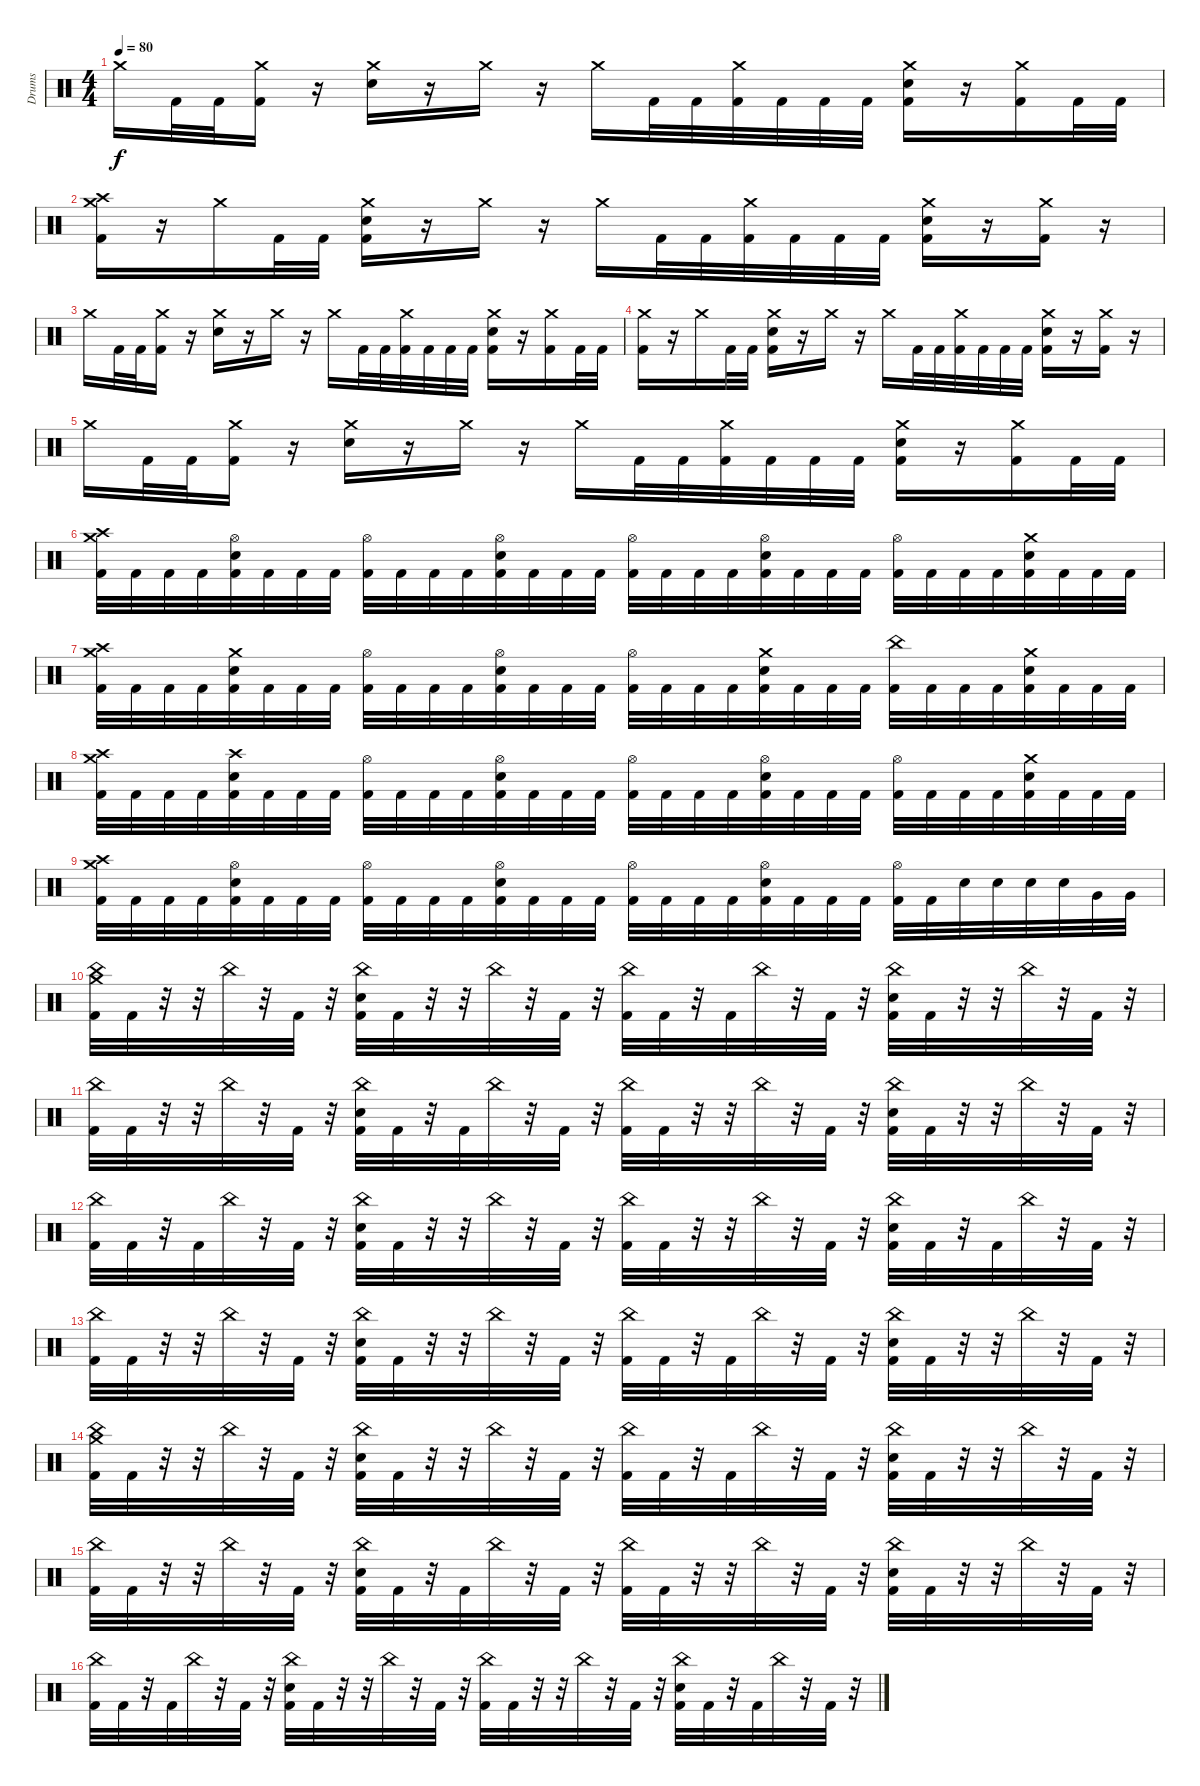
\track ("Drums" "Drums") {instrument percussion}
\staff {score}
\articulation defaults
\ts (4 4)
\tempo 80
\clef neutral
\ks c "Crash medium (hit)".16{dy f} "Kick (hit) 2".32 "Kick (hit) 2".32
("Crash medium (hit)" "Kick (hit) 2").16 r.16 ("Crash medium (hit)" "Snare (hit) 2").16 r.16 "Crash medium (hit)".16 r.16 "Crash medium (hit)".16 "Kick (hit) 2".32 "Kick (hit) 2".32 ("Crash medium (hit)" "Kick (hit) 2").32 "Kick (hit) 2".32 "Kick (hit) 2".32 "Kick (hit) 2".32 ("Crash medium (hit)" "Snare (hit) 2" "Kick (hit) 2").16 r.16 ("Crash medium (hit)" "Kick (hit) 2").16 "Kick (hit) 2".32 "Kick (hit) 2".32 |
("Crash medium (hit)" "Crash high (hit)" "Kick (hit) 2").16 r.16 "Crash medium (hit)".16 "Kick (hit) 2".32 "Kick (hit) 2".32 ("Crash medium (hit)" "Snare (hit) 2" "Kick (hit) 2").16 r.16 "Crash medium (hit)".16 r.16 "Crash medium (hit)".16 "Kick (hit) 2".32 "Kick (hit) 2".32 ("Crash medium (hit)" "Kick (hit) 2").32 "Kick (hit) 2".32 "Kick (hit) 2".32 "Kick (hit) 2".32 ("Crash medium (hit)" "Snare (hit) 2" "Kick (hit) 2").16 r.16 ("Crash medium (hit)" "Kick (hit) 2").16 r.16 |
"Crash medium (hit)".16 "Kick (hit) 2".32 "Kick (hit) 2".32 ("Crash medium (hit)" "Kick (hit) 2").16 r.16 ("Crash medium (hit)" "Snare (hit) 2").16 r.16 "Crash medium (hit)".16 r.16 "Crash medium (hit)".16 "Kick (hit) 2".32 "Kick (hit) 2".32 ("Crash medium (hit)" "Kick (hit) 2").32 "Kick (hit) 2".32 "Kick (hit) 2".32 "Kick (hit) 2".32 ("Crash medium (hit)" "Snare (hit) 2" "Kick (hit) 2").16 r.16 ("Crash medium (hit)" "Kick (hit) 2").16 "Kick (hit) 2".32 "Kick (hit) 2".32 |
("Crash medium (hit)" "Kick (hit) 2").16 r.16 "Crash medium (hit)".16 "Kick (hit) 2".32 "Kick (hit) 2".32 ("Crash medium (hit)" "Snare (hit) 2" "Kick (hit) 2").16 r.16 "Crash medium (hit)".16 r.16 "Crash medium (hit)".16 "Kick (hit) 2".32 "Kick (hit) 2".32 ("Crash medium (hit)" "Kick (hit) 2").32 "Kick (hit) 2".32 "Kick (hit) 2".32 "Kick (hit) 2".32 ("Crash medium (hit)" "Snare (hit) 2" "Kick (hit) 2").16 r.16 ("Crash medium (hit)" "Kick (hit) 2").16 r.16 |
"Crash medium (hit)".16 "Kick (hit) 2".32 "Kick (hit) 2".32 ("Crash medium (hit)" "Kick (hit) 2").16 r.16 ("Crash medium (hit)" "Snare (hit) 2").16 r.16 "Crash medium (hit)".16 r.16 "Crash medium (hit)".16 "Kick (hit) 2".32 "Kick (hit) 2".32 ("Crash medium (hit)" "Kick (hit) 2").32 "Kick (hit) 2".32 "Kick (hit) 2".32 "Kick (hit) 2".32 ("Crash medium (hit)" "Snare (hit) 2" "Kick (hit) 2").16 r.16 ("Crash medium (hit)" "Kick (hit) 2").16 "Kick (hit) 2".32 "Kick (hit) 2".32 |
("Crash medium (hit)" "Crash high (hit)" "Kick (hit) 2").32 "Kick (hit) 2".32 "Kick (hit) 2".32 "Kick (hit) 2".32 ("Hi-Hat (open)" "Snare (hit) 2" "Kick (hit) 2").32 "Kick (hit) 2".32 "Kick (hit) 2".32 "Kick (hit) 2".32 ("Hi-Hat (open)" "Kick (hit) 2").32 "Kick (hit) 2".32 "Kick (hit) 2".32 "Kick (hit) 2".32 ("Hi-Hat (open)" "Snare (hit) 2" "Kick (hit) 2").32 "Kick (hit) 2".32 "Kick (hit) 2".32 "Kick (hit) 2".32 ("Hi-Hat (open)" "Kick (hit) 2").32 "Kick (hit) 2".32 "Kick (hit) 2".32 "Kick (hit) 2".32 ("Hi-Hat (open)" "Snare (hit) 2" "Kick (hit) 2").32 "Kick (hit) 2".32 "Kick (hit) 2".32 "Kick (hit) 2".32 ("Hi-Hat (open)" "Kick (hit) 2").32 "Kick (hit) 2".32 "Kick (hit) 2".32 "Kick (hit) 2".32 ("Crash medium (hit)" "Snare (hit) 2" "Kick (hit) 2").32 "Kick (hit) 2".32 "Kick (hit) 2".32 "Kick (hit) 2".32 |
("Crash medium (hit)" "Crash high (hit)" "Kick (hit) 2").32 "Kick (hit) 2".32 "Kick (hit) 2".32 "Kick (hit) 2".32 ("Crash medium (hit)" "Snare (hit) 2" "Kick (hit) 2").32 "Kick (hit) 2".32 "Kick (hit) 2".32 "Kick (hit) 2".32 ("Hi-Hat (open)" "Kick (hit) 2").32 "Kick (hit) 2".32 "Kick (hit) 2".32 "Kick (hit) 2".32 ("Hi-Hat (open)" "Snare (hit) 2" "Kick (hit) 2").32 "Kick (hit) 2".32 "Kick (hit) 2".32 "Kick (hit) 2".32 ("Hi-Hat (open)" "Kick (hit) 2").32 "Kick (hit) 2".32 "Kick (hit) 2".32 "Kick (hit) 2".32 ("Crash medium (hit)" "Snare (hit) 2" "Kick (hit) 2").32 "Kick (hit) 2".32 "Kick (hit) 2".32 "Kick (hit) 2".32 ("China (hit)" "Kick (hit) 2").32 "Kick (hit) 2".32 "Kick (hit) 2".32 "Kick (hit) 2".32 ("Crash medium (hit)" "Snare (hit) 2" "Kick (hit) 2").32 "Kick (hit) 2".32 "Kick (hit) 2".32 "Kick (hit) 2".32 |
("Crash medium (hit)" "Crash high (hit)" "Kick (hit) 2").32 "Kick (hit) 2".32 "Kick (hit) 2".32 "Kick (hit) 2".32 ("Crash high (hit)" "Snare (hit) 2" "Kick (hit) 2").32 "Kick (hit) 2".32 "Kick (hit) 2".32 "Kick (hit) 2".32 ("Hi-Hat (open)" "Kick (hit) 2").32 "Kick (hit) 2".32 "Kick (hit) 2".32 "Kick (hit) 2".32 ("Hi-Hat (open)" "Snare (hit) 2" "Kick (hit) 2").32 "Kick (hit) 2".32 "Kick (hit) 2".32 "Kick (hit) 2".32 ("Hi-Hat (open)" "Kick (hit) 2").32 "Kick (hit) 2".32 "Kick (hit) 2".32 "Kick (hit) 2".32 ("Hi-Hat (open)" "Snare (hit) 2" "Kick (hit) 2").32 "Kick (hit) 2".32 "Kick (hit) 2".32 "Kick (hit) 2".32 ("Hi-Hat (open)" "Kick (hit) 2").32 "Kick (hit) 2".32 "Kick (hit) 2".32 "Kick (hit) 2".32 ("Crash medium (hit)" "Snare (hit) 2" "Kick (hit) 2").32 "Kick (hit) 2".32 "Kick (hit) 2".32 "Kick (hit) 2".32 |
("Crash medium (hit)" "Crash high (hit)" "Kick (hit) 2").32 "Kick (hit) 2".32 "Kick (hit) 2".32 "Kick (hit) 2".32 ("Hi-Hat (open)" "Snare (hit) 2" "Kick (hit) 2").32 "Kick (hit) 2".32 "Kick (hit) 2".32 "Kick (hit) 2".32 ("Hi-Hat (open)" "Kick (hit) 2").32 "Kick (hit) 2".32 "Kick (hit) 2".32 "Kick (hit) 2".32 ("Hi-Hat (open)" "Snare (hit) 2" "Kick (hit) 2").32 "Kick (hit) 2".32 "Kick (hit) 2".32 "Kick (hit) 2".32 ("Hi-Hat (open)" "Kick (hit) 2").32 "Kick (hit) 2".32 "Kick (hit) 2".32 "Kick (hit) 2".32 ("Hi-Hat (open)" "Snare (hit) 2" "Kick (hit) 2").32 "Kick (hit) 2".32 "Kick (hit) 2".32 "Kick (hit) 2".32 ("Hi-Hat (open)" "Kick (hit) 2").32 "Kick (hit) 2".32 "Snare (hit) 2".32 "Snare (hit) 2".32 "Snare (hit) 2".32 "Snare (hit) 2".32 "Very Low Tom (hit)".32 "Very Low Tom (hit)".32 |
("China (hit)" "Crash medium (hit)" "Kick (hit) 2").32 "Kick (hit) 2".32 r.32 r.32 "China (hit)".32 r.32 "Kick (hit) 2".32 r.32 ("China (hit)" "Snare (hit) 2" "Kick (hit) 2").32 "Kick (hit) 2".32 r.32 r.32 "China (hit)".32 r.32 "Kick (hit) 2".32 r.32 ("China (hit)" "Kick (hit) 2").32 "Kick (hit) 2".32 r.32 "Kick (hit) 2".32 "China (hit)".32 r.32 "Kick (hit) 2".32 r.32 ("China (hit)" "Snare (hit) 2" "Kick (hit) 2").32 "Kick (hit) 2".32 r.32 r.32 "China (hit)".32 r.32 "Kick (hit) 2".32 r.32 |
("China (hit)" "Kick (hit) 2").32 "Kick (hit) 2".32 r.32 r.32 "China (hit)".32 r.32 "Kick (hit) 2".32 r.32 ("China (hit)" "Snare (hit) 2" "Kick (hit) 2").32 "Kick (hit) 2".32 r.32 "Kick (hit) 2".32 "China (hit)".32 r.32 "Kick (hit) 2".32 r.32 ("China (hit)" "Kick (hit) 2").32 "Kick (hit) 2".32 r.32 r.32 "China (hit)".32 r.32 "Kick (hit) 2".32 r.32 ("China (hit)" "Snare (hit) 2" "Kick (hit) 2").32 "Kick (hit) 2".32 r.32 r.32 "China (hit)".32 r.32 "Kick (hit) 2".32 r.32 |
("China (hit)" "Kick (hit) 2").32 "Kick (hit) 2".32 r.32 "Kick (hit) 2".32 "China (hit)".32 r.32 "Kick (hit) 2".32 r.32 ("China (hit)" "Snare (hit) 2" "Kick (hit) 2").32 "Kick (hit) 2".32 r.32 r.32 "China (hit)".32 r.32 "Kick (hit) 2".32 r.32 ("China (hit)" "Kick (hit) 2").32 "Kick (hit) 2".32 r.32 r.32 "China (hit)".32 r.32 "Kick (hit) 2".32 r.32 ("China (hit)" "Snare (hit) 2" "Kick (hit) 2").32 "Kick (hit) 2".32 r.32 "Kick (hit) 2".32 "China (hit)".32 r.32 "Kick (hit) 2".32 r.32 |
("China (hit)" "Kick (hit) 2").32 "Kick (hit) 2".32 r.32 r.32 "China (hit)".32 r.32 "Kick (hit) 2".32 r.32 ("China (hit)" "Snare (hit) 2" "Kick (hit) 2").32 "Kick (hit) 2".32 r.32 r.32 "China (hit)".32 r.32 "Kick (hit) 2".32 r.32 ("China (hit)" "Kick (hit) 2").32 "Kick (hit) 2".32 r.32 "Kick (hit) 2".32 "China (hit)".32 r.32 "Kick (hit) 2".32 r.32 ("China (hit)" "Snare (hit) 2" "Kick (hit) 2").32 "Kick (hit) 2".32 r.32 r.32 "China (hit)".32 r.32 "Kick (hit) 2".32 r.32 |
("China (hit)" "Crash medium (hit)" "Kick (hit) 2").32 "Kick (hit) 2".32 r.32 r.32 "China (hit)".32 r.32 "Kick (hit) 2".32 r.32 ("China (hit)" "Snare (hit) 2" "Kick (hit) 2").32 "Kick (hit) 2".32 r.32 r.32 "China (hit)".32 r.32 "Kick (hit) 2".32 r.32 ("China (hit)" "Kick (hit) 2").32 "Kick (hit) 2".32 r.32 "Kick (hit) 2".32 "China (hit)".32 r.32 "Kick (hit) 2".32 r.32 ("China (hit)" "Snare (hit) 2" "Kick (hit) 2").32 "Kick (hit) 2".32 r.32 r.32 "China (hit)".32 r.32 "Kick (hit) 2".32 r.32 |
("China (hit)" "Kick (hit) 2").32 "Kick (hit) 2".32 r.32 r.32 "China (hit)".32 r.32 "Kick (hit) 2".32 r.32 ("China (hit)" "Snare (hit) 2" "Kick (hit) 2").32 "Kick (hit) 2".32 r.32 "Kick (hit) 2".32 "China (hit)".32 r.32 "Kick (hit) 2".32 r.32 ("China (hit)" "Kick (hit) 2").32 "Kick (hit) 2".32 r.32 r.32 "China (hit)".32 r.32 "Kick (hit) 2".32 r.32 ("China (hit)" "Snare (hit) 2" "Kick (hit) 2").32 "Kick (hit) 2".32 r.32 r.32 "China (hit)".32 r.32 "Kick (hit) 2".32 r.32 |
("China (hit)" "Kick (hit) 2").32 "Kick (hit) 2".32 r.32 "Kick (hit) 2".32 "China (hit)".32 r.32 "Kick (hit) 2".32 r.32 ("China (hit)" "Snare (hit) 2" "Kick (hit) 2").32 "Kick (hit) 2".32 r.32 r.32 "China (hit)".32 r.32 "Kick (hit) 2".32 r.32 ("China (hit)" "Kick (hit) 2").32 "Kick (hit) 2".32 r.32 r.32 "China (hit)".32 r.32 "Kick (hit) 2".32 r.32 ("China (hit)" "Snare (hit) 2" "Kick (hit) 2").32 "Kick (hit) 2".32 r.32 "Kick (hit) 2".32 "China (hit)".32 r.32 "Kick (hit) 2".32 r.32
